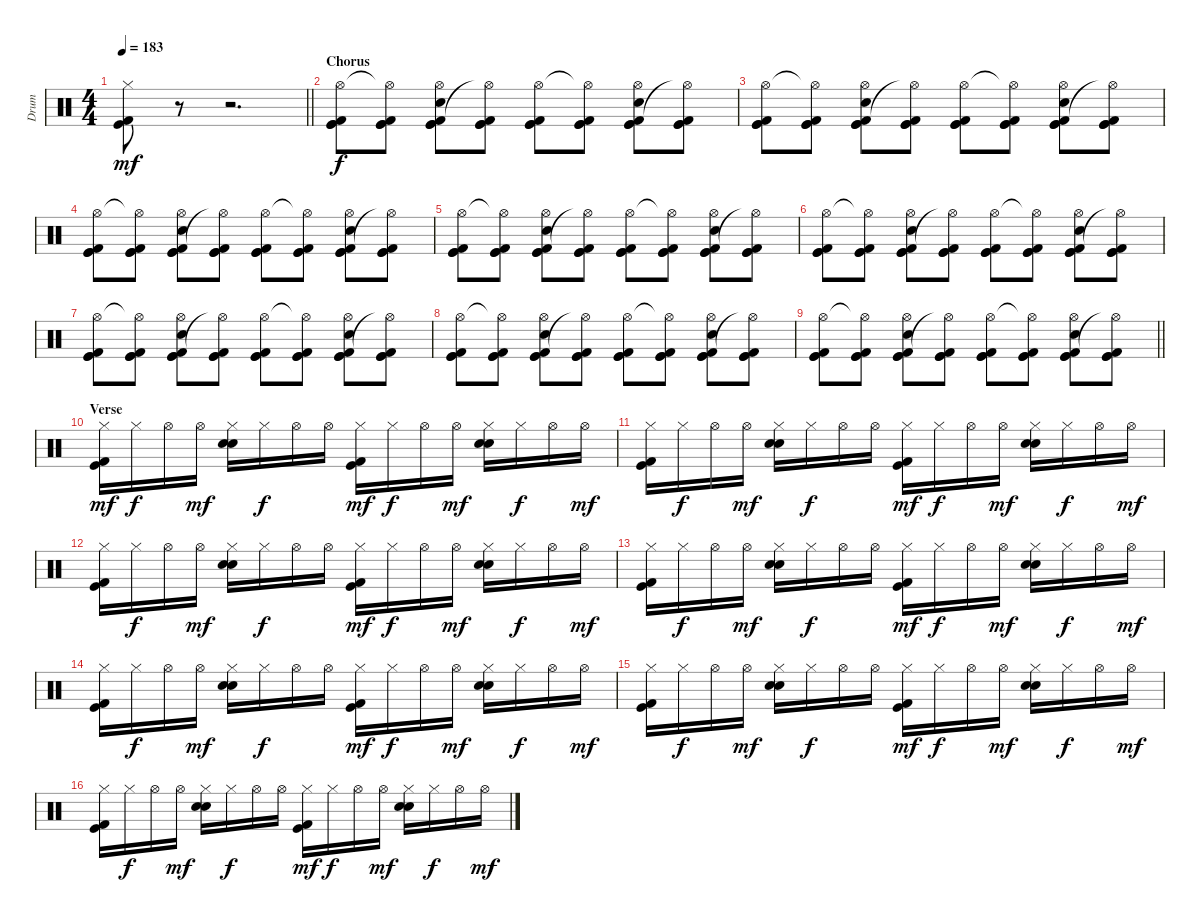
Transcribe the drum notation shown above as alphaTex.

\track ("Drum" "Drum") {instrument percussion}
\staff {score}
\articulation defaults
\ts (4 4)
\tempo 183
\clef neutral
\barLineRight lightlight
\ks c
("Hi-Hat (closed)" "Kick (hit)" "Kick (hit) 2").8{dy mf} r.8 r.2{d} |
\section ("" "Chorus")
("Kick (hit) 2" "Hi-Hat (open)" "Kick (hit)" "Kick (hit)").8{dy f} ("Kick (hit) 2" "Hi-Hat (open)"{t} "Kick (hit)" "Kick (hit)").8 ("Electric Snare (hit)" "Kick (hit) 2" "Hi-Hat (open)" "Kick (hit)" "Kick (hit)").8 ("Kick (hit) 2" "Hi-Hat (open)"{t} "Kick (hit)" "Kick (hit)").8 ("Kick (hit) 2" "Hi-Hat (open)" "Kick (hit)" "Kick (hit)").8 ("Kick (hit) 2" "Hi-Hat (open)"{t} "Kick (hit)" "Kick (hit)").8 ("Electric Snare (hit)" "Kick (hit) 2" "Hi-Hat (open)" "Kick (hit)" "Kick (hit)").8 ("Kick (hit) 2" "Hi-Hat (open)"{t} "Kick (hit)" "Kick (hit)").8 |
("Kick (hit) 2" "Hi-Hat (open)" "Kick (hit)" "Kick (hit)").8 ("Kick (hit) 2" "Hi-Hat (open)"{t} "Kick (hit)" "Kick (hit)").8 ("Electric Snare (hit)" "Kick (hit) 2" "Hi-Hat (open)" "Kick (hit)" "Kick (hit)").8 ("Kick (hit) 2" "Hi-Hat (open)"{t} "Kick (hit)" "Kick (hit)").8 ("Kick (hit) 2" "Hi-Hat (open)" "Kick (hit)" "Kick (hit)").8 ("Kick (hit) 2" "Hi-Hat (open)"{t} "Kick (hit)" "Kick (hit)").8 ("Electric Snare (hit)" "Kick (hit) 2" "Hi-Hat (open)" "Kick (hit)" "Kick (hit)").8 ("Kick (hit) 2" "Hi-Hat (open)"{t} "Kick (hit)" "Kick (hit)").8 |
("Kick (hit) 2" "Hi-Hat (open)" "Kick (hit)" "Kick (hit)").8 ("Kick (hit) 2" "Hi-Hat (open)"{t} "Kick (hit)" "Kick (hit)").8 ("Electric Snare (hit)" "Kick (hit) 2" "Hi-Hat (open)" "Kick (hit)" "Kick (hit)").8 ("Kick (hit) 2" "Hi-Hat (open)"{t} "Kick (hit)" "Kick (hit)").8 ("Kick (hit) 2" "Hi-Hat (open)" "Kick (hit)" "Kick (hit)").8 ("Kick (hit) 2" "Hi-Hat (open)"{t} "Kick (hit)" "Kick (hit)").8 ("Electric Snare (hit)" "Kick (hit) 2" "Hi-Hat (open)" "Kick (hit)" "Kick (hit)").8 ("Kick (hit) 2" "Hi-Hat (open)"{t} "Kick (hit)" "Kick (hit)").8 |
("Kick (hit) 2" "Hi-Hat (open)" "Kick (hit)" "Kick (hit)").8 ("Kick (hit) 2" "Hi-Hat (open)"{t} "Kick (hit)" "Kick (hit)").8 ("Electric Snare (hit)" "Kick (hit) 2" "Hi-Hat (open)" "Kick (hit)" "Kick (hit)").8 ("Kick (hit) 2" "Hi-Hat (open)"{t} "Kick (hit)" "Kick (hit)").8 ("Kick (hit) 2" "Hi-Hat (open)" "Kick (hit)" "Kick (hit)").8 ("Kick (hit) 2" "Hi-Hat (open)"{t} "Kick (hit)" "Kick (hit)").8 ("Electric Snare (hit)" "Kick (hit) 2" "Hi-Hat (open)" "Kick (hit)" "Kick (hit)").8 ("Kick (hit) 2" "Hi-Hat (open)"{t} "Kick (hit)" "Kick (hit)").8 |
("Kick (hit) 2" "Hi-Hat (open)" "Kick (hit)" "Kick (hit)").8 ("Kick (hit) 2" "Hi-Hat (open)"{t} "Kick (hit)" "Kick (hit)").8 ("Electric Snare (hit)" "Kick (hit) 2" "Hi-Hat (open)" "Kick (hit)" "Kick (hit)").8 ("Kick (hit) 2" "Hi-Hat (open)"{t} "Kick (hit)" "Kick (hit)").8 ("Kick (hit) 2" "Hi-Hat (open)" "Kick (hit)" "Kick (hit)").8 ("Kick (hit) 2" "Hi-Hat (open)"{t} "Kick (hit)" "Kick (hit)").8 ("Electric Snare (hit)" "Kick (hit) 2" "Hi-Hat (open)" "Kick (hit)" "Kick (hit)").8 ("Kick (hit) 2" "Hi-Hat (open)"{t} "Kick (hit)" "Kick (hit)").8 |
("Kick (hit) 2" "Hi-Hat (open)" "Kick (hit)" "Kick (hit)").8 ("Kick (hit) 2" "Hi-Hat (open)"{t} "Kick (hit)" "Kick (hit)").8 ("Electric Snare (hit)" "Kick (hit) 2" "Hi-Hat (open)" "Kick (hit)" "Kick (hit)").8 ("Kick (hit) 2" "Hi-Hat (open)"{t} "Kick (hit)" "Kick (hit)").8 ("Kick (hit) 2" "Hi-Hat (open)" "Kick (hit)" "Kick (hit)").8 ("Kick (hit) 2" "Hi-Hat (open)"{t} "Kick (hit)" "Kick (hit)").8 ("Electric Snare (hit)" "Kick (hit) 2" "Hi-Hat (open)" "Kick (hit)" "Kick (hit)").8 ("Kick (hit) 2" "Hi-Hat (open)"{t} "Kick (hit)" "Kick (hit)").8 |
("Kick (hit) 2" "Hi-Hat (open)" "Kick (hit)" "Kick (hit)").8 ("Kick (hit) 2" "Hi-Hat (open)"{t} "Kick (hit)" "Kick (hit)").8 ("Electric Snare (hit)" "Kick (hit) 2" "Hi-Hat (open)" "Kick (hit)" "Kick (hit)").8 ("Kick (hit) 2" "Hi-Hat (open)"{t} "Kick (hit)" "Kick (hit)").8 ("Kick (hit) 2" "Hi-Hat (open)" "Kick (hit)" "Kick (hit)").8 ("Kick (hit) 2" "Hi-Hat (open)"{t} "Kick (hit)" "Kick (hit)").8 ("Electric Snare (hit)" "Kick (hit) 2" "Hi-Hat (open)" "Kick (hit)" "Kick (hit)").8 ("Kick (hit) 2" "Hi-Hat (open)"{t} "Kick (hit)" "Kick (hit)").8 |
\barLineRight lightlight
("Kick (hit) 2" "Hi-Hat (open)" "Kick (hit)" "Kick (hit)").8 ("Kick (hit) 2" "Hi-Hat (open)"{t} "Kick (hit)" "Kick (hit)").8 ("Electric Snare (hit)" "Kick (hit) 2" "Hi-Hat (open)" "Kick (hit)" "Kick (hit)").8 ("Kick (hit) 2" "Hi-Hat (open)"{t} "Kick (hit)" "Kick (hit)").8 ("Kick (hit) 2" "Hi-Hat (open)" "Kick (hit)" "Kick (hit)").8 ("Kick (hit) 2" "Hi-Hat (open)"{t} "Kick (hit)" "Kick (hit)").8 ("Electric Snare (hit)" "Kick (hit) 2" "Hi-Hat (open)" "Kick (hit)" "Kick (hit)").8 ("Kick (hit) 2" "Hi-Hat (open)"{t} "Kick (hit)" "Kick (hit)").8 |
\section ("" "Verse")
("Hi-Hat (closed)" "Kick (hit) 2" "Kick (hit)").16{dy mf} "Hi-Hat (closed)".16{dy f} "Hi-Hat (open)".16 "Hi-Hat (open)".16{dy mf} ("Hi-Hat (closed)" "Electric Snare (hit)" "Electric Snare (hit)").16 "Hi-Hat (closed)".16{dy f} "Hi-Hat (open)".16 "Hi-Hat (open)".16 ("Hi-Hat (closed)" "Kick (hit) 2" "Kick (hit)").16{dy mf} "Hi-Hat (closed)".16{dy f} "Hi-Hat (open)".16 "Hi-Hat (open)".16{dy mf} ("Hi-Hat (closed)" "Electric Snare (hit)" "Electric Snare (hit)").16 "Hi-Hat (closed)".16{dy f} "Hi-Hat (open)".16 "Hi-Hat (open)".16{dy mf} |
("Hi-Hat (closed)" "Kick (hit) 2" "Kick (hit)").16 "Hi-Hat (closed)".16{dy f} "Hi-Hat (open)".16 "Hi-Hat (open)".16{dy mf} ("Hi-Hat (closed)" "Electric Snare (hit)" "Electric Snare (hit)").16 "Hi-Hat (closed)".16{dy f} "Hi-Hat (open)".16 "Hi-Hat (open)".16 ("Hi-Hat (closed)" "Kick (hit) 2" "Kick (hit)").16{dy mf} "Hi-Hat (closed)".16{dy f} "Hi-Hat (open)".16 "Hi-Hat (open)".16{dy mf} ("Hi-Hat (closed)" "Electric Snare (hit)" "Electric Snare (hit)").16 "Hi-Hat (closed)".16{dy f} "Hi-Hat (open)".16 "Hi-Hat (open)".16{dy mf} |
("Hi-Hat (closed)" "Kick (hit) 2" "Kick (hit)").16 "Hi-Hat (closed)".16{dy f} "Hi-Hat (open)".16 "Hi-Hat (open)".16{dy mf} ("Hi-Hat (closed)" "Electric Snare (hit)" "Electric Snare (hit)").16 "Hi-Hat (closed)".16{dy f} "Hi-Hat (open)".16 "Hi-Hat (open)".16 ("Hi-Hat (closed)" "Kick (hit) 2" "Kick (hit)").16{dy mf} "Hi-Hat (closed)".16{dy f} "Hi-Hat (open)".16 "Hi-Hat (open)".16{dy mf} ("Hi-Hat (closed)" "Electric Snare (hit)" "Electric Snare (hit)").16 "Hi-Hat (closed)".16{dy f} "Hi-Hat (open)".16 "Hi-Hat (open)".16{dy mf} |
("Hi-Hat (closed)" "Kick (hit) 2" "Kick (hit)").16 "Hi-Hat (closed)".16{dy f} "Hi-Hat (open)".16 "Hi-Hat (open)".16{dy mf} ("Hi-Hat (closed)" "Electric Snare (hit)" "Electric Snare (hit)").16 "Hi-Hat (closed)".16{dy f} "Hi-Hat (open)".16 "Hi-Hat (open)".16 ("Hi-Hat (closed)" "Kick (hit) 2" "Kick (hit)").16{dy mf} "Hi-Hat (closed)".16{dy f} "Hi-Hat (open)".16 "Hi-Hat (open)".16{dy mf} ("Hi-Hat (closed)" "Electric Snare (hit)" "Electric Snare (hit)").16 "Hi-Hat (closed)".16{dy f} "Hi-Hat (open)".16 "Hi-Hat (open)".16{dy mf} |
("Hi-Hat (closed)" "Kick (hit) 2" "Kick (hit)").16 "Hi-Hat (closed)".16{dy f} "Hi-Hat (open)".16 "Hi-Hat (open)".16{dy mf} ("Hi-Hat (closed)" "Electric Snare (hit)" "Electric Snare (hit)").16 "Hi-Hat (closed)".16{dy f} "Hi-Hat (open)".16 "Hi-Hat (open)".16 ("Hi-Hat (closed)" "Kick (hit) 2" "Kick (hit)").16{dy mf} "Hi-Hat (closed)".16{dy f} "Hi-Hat (open)".16 "Hi-Hat (open)".16{dy mf} ("Hi-Hat (closed)" "Electric Snare (hit)" "Electric Snare (hit)").16 "Hi-Hat (closed)".16{dy f} "Hi-Hat (open)".16 "Hi-Hat (open)".16{dy mf} |
("Hi-Hat (closed)" "Kick (hit) 2" "Kick (hit)").16 "Hi-Hat (closed)".16{dy f} "Hi-Hat (open)".16 "Hi-Hat (open)".16{dy mf} ("Hi-Hat (closed)" "Electric Snare (hit)" "Electric Snare (hit)").16 "Hi-Hat (closed)".16{dy f} "Hi-Hat (open)".16 "Hi-Hat (open)".16 ("Hi-Hat (closed)" "Kick (hit) 2" "Kick (hit)").16{dy mf} "Hi-Hat (closed)".16{dy f} "Hi-Hat (open)".16 "Hi-Hat (open)".16{dy mf} ("Hi-Hat (closed)" "Electric Snare (hit)" "Electric Snare (hit)").16 "Hi-Hat (closed)".16{dy f} "Hi-Hat (open)".16 "Hi-Hat (open)".16{dy mf} |
("Hi-Hat (closed)" "Kick (hit) 2" "Kick (hit)").16 "Hi-Hat (closed)".16{dy f} "Hi-Hat (open)".16 "Hi-Hat (open)".16{dy mf} ("Hi-Hat (closed)" "Electric Snare (hit)" "Electric Snare (hit)").16 "Hi-Hat (closed)".16{dy f} "Hi-Hat (open)".16 "Hi-Hat (open)".16 ("Hi-Hat (closed)" "Kick (hit) 2" "Kick (hit)").16{dy mf} "Hi-Hat (closed)".16{dy f} "Hi-Hat (open)".16 "Hi-Hat (open)".16{dy mf} ("Hi-Hat (closed)" "Electric Snare (hit)" "Electric Snare (hit)").16 "Hi-Hat (closed)".16{dy f} "Hi-Hat (open)".16 "Hi-Hat (open)".16{dy mf}
